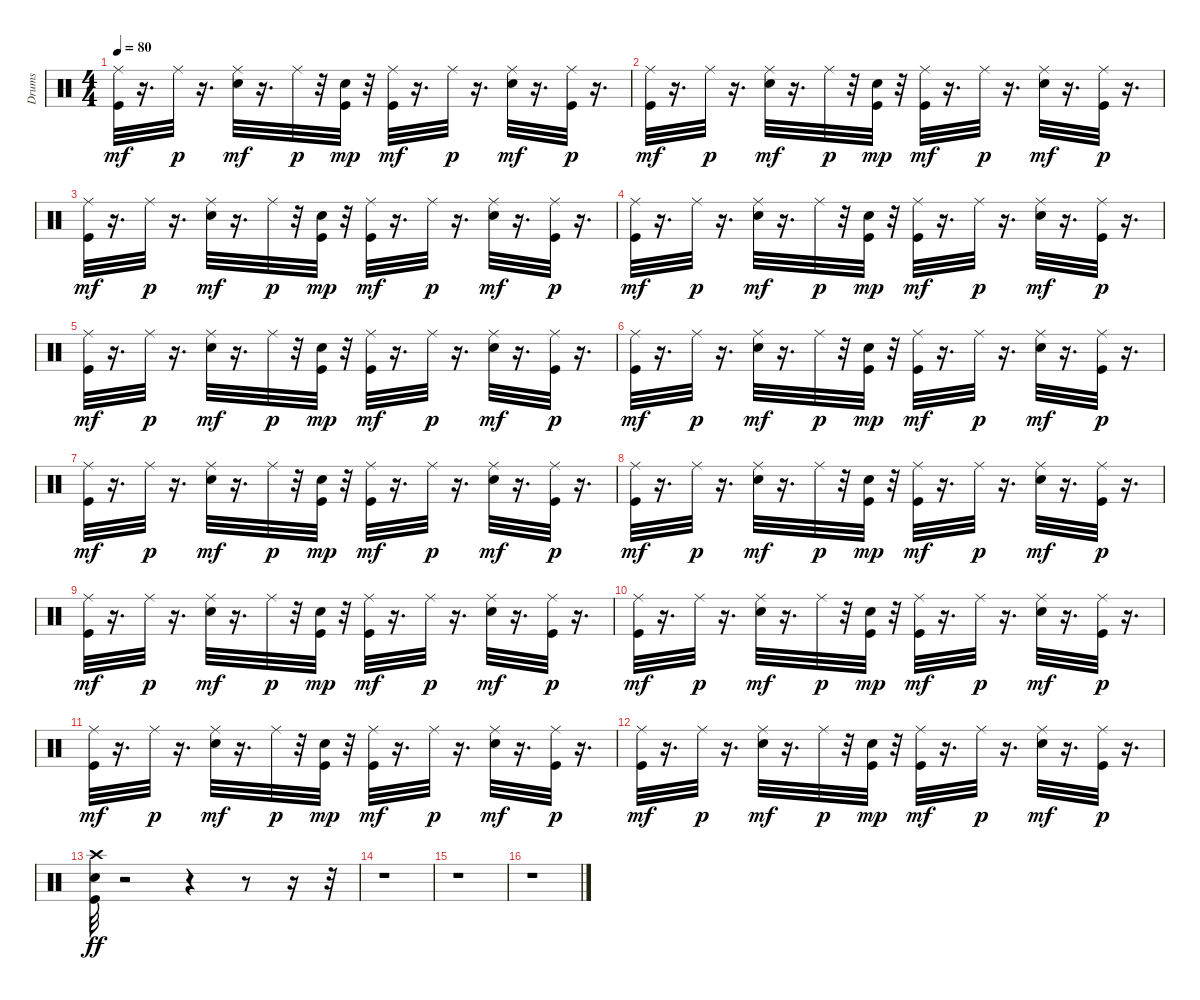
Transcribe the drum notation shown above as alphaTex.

\track ("Drums" "Drums") {instrument percussion}
\staff {score}
\articulation defaults
\ts (4 4)
\tempo 80
\clef neutral
\ks c
("Kick (hit)" "Ride (middle)").32{dy mf} r.16{d} "Ride (middle)".32{dy p} r.16{d} ("Snare (hit) 2" "Ride (middle)").32{dy mf} r.16{d} "Ride (middle)".32{dy p} r.32 ("Kick (hit)" "Snare (hit) 2").32{dy mp} r.32 ("Kick (hit)" "Ride (middle)").32{dy mf} r.16{d} "Ride (middle)".32{dy p} r.16{d} ("Snare (hit) 2" "Ride (middle)").32{dy mf} r.16{d} ("Kick (hit)" "Ride (middle)").32{dy p} r.16{d} |
("Kick (hit)" "Ride (middle)").32{dy mf} r.16{d} "Ride (middle)".32{dy p} r.16{d} ("Snare (hit) 2" "Ride (middle)").32{dy mf} r.16{d} "Ride (middle)".32{dy p} r.32 ("Kick (hit)" "Snare (hit) 2").32{dy mp} r.32 ("Kick (hit)" "Ride (middle)").32{dy mf} r.16{d} "Ride (middle)".32{dy p} r.16{d} ("Snare (hit) 2" "Ride (middle)").32{dy mf} r.16{d} ("Kick (hit)" "Ride (middle)").32{dy p} r.16{d} |
("Kick (hit)" "Ride (middle)").32{dy mf} r.16{d} "Ride (middle)".32{dy p} r.16{d} ("Snare (hit) 2" "Ride (middle)").32{dy mf} r.16{d} "Ride (middle)".32{dy p} r.32 ("Kick (hit)" "Snare (hit) 2").32{dy mp} r.32 ("Kick (hit)" "Ride (middle)").32{dy mf} r.16{d} "Ride (middle)".32{dy p} r.16{d} ("Snare (hit) 2" "Ride (middle)").32{dy mf} r.16{d} ("Kick (hit)" "Ride (middle)").32{dy p} r.16{d} |
("Kick (hit)" "Ride (middle)").32{dy mf} r.16{d} "Ride (middle)".32{dy p} r.16{d} ("Snare (hit) 2" "Ride (middle)").32{dy mf} r.16{d} "Ride (middle)".32{dy p} r.32 ("Kick (hit)" "Snare (hit) 2").32{dy mp} r.32 ("Kick (hit)" "Ride (middle)").32{dy mf} r.16{d} "Ride (middle)".32{dy p} r.16{d} ("Snare (hit) 2" "Ride (middle)").32{dy mf} r.16{d} ("Kick (hit)" "Ride (middle)").32{dy p} r.16{d} |
("Kick (hit)" "Ride (middle)").32{dy mf} r.16{d} "Ride (middle)".32{dy p} r.16{d} ("Snare (hit) 2" "Ride (middle)").32{dy mf} r.16{d} "Ride (middle)".32{dy p} r.32 ("Kick (hit)" "Snare (hit) 2").32{dy mp} r.32 ("Kick (hit)" "Ride (middle)").32{dy mf} r.16{d} "Ride (middle)".32{dy p} r.16{d} ("Snare (hit) 2" "Ride (middle)").32{dy mf} r.16{d} ("Kick (hit)" "Ride (middle)").32{dy p} r.16{d} |
("Kick (hit)" "Ride (middle)").32{dy mf} r.16{d} "Ride (middle)".32{dy p} r.16{d} ("Snare (hit) 2" "Ride (middle)").32{dy mf} r.16{d} "Ride (middle)".32{dy p} r.32 ("Kick (hit)" "Snare (hit) 2").32{dy mp} r.32 ("Kick (hit)" "Ride (middle)").32{dy mf} r.16{d} "Ride (middle)".32{dy p} r.16{d} ("Snare (hit) 2" "Ride (middle)").32{dy mf} r.16{d} ("Kick (hit)" "Ride (middle)").32{dy p} r.16{d} |
("Kick (hit)" "Ride (middle)").32{dy mf} r.16{d} "Ride (middle)".32{dy p} r.16{d} ("Snare (hit) 2" "Ride (middle)").32{dy mf} r.16{d} "Ride (middle)".32{dy p} r.32 ("Kick (hit)" "Snare (hit) 2").32{dy mp} r.32 ("Kick (hit)" "Ride (middle)").32{dy mf} r.16{d} "Ride (middle)".32{dy p} r.16{d} ("Snare (hit) 2" "Ride (middle)").32{dy mf} r.16{d} ("Kick (hit)" "Ride (middle)").32{dy p} r.16{d} |
("Kick (hit)" "Ride (middle)").32{dy mf} r.16{d} "Ride (middle)".32{dy p} r.16{d} ("Snare (hit) 2" "Ride (middle)").32{dy mf} r.16{d} "Ride (middle)".32{dy p} r.32 ("Kick (hit)" "Snare (hit) 2").32{dy mp} r.32 ("Kick (hit)" "Ride (middle)").32{dy mf} r.16{d} "Ride (middle)".32{dy p} r.16{d} ("Snare (hit) 2" "Ride (middle)").32{dy mf} r.16{d} ("Kick (hit)" "Ride (middle)").32{dy p} r.16{d} |
("Kick (hit)" "Ride (middle)").32{dy mf} r.16{d} "Ride (middle)".32{dy p} r.16{d} ("Snare (hit) 2" "Ride (middle)").32{dy mf} r.16{d} "Ride (middle)".32{dy p} r.32 ("Kick (hit)" "Snare (hit) 2").32{dy mp} r.32 ("Kick (hit)" "Ride (middle)").32{dy mf} r.16{d} "Ride (middle)".32{dy p} r.16{d} ("Snare (hit) 2" "Ride (middle)").32{dy mf} r.16{d} ("Kick (hit)" "Ride (middle)").32{dy p} r.16{d} |
("Kick (hit)" "Ride (middle)").32{dy mf} r.16{d} "Ride (middle)".32{dy p} r.16{d} ("Snare (hit) 2" "Ride (middle)").32{dy mf} r.16{d} "Ride (middle)".32{dy p} r.32 ("Kick (hit)" "Snare (hit) 2").32{dy mp} r.32 ("Kick (hit)" "Ride (middle)").32{dy mf} r.16{d} "Ride (middle)".32{dy p} r.16{d} ("Snare (hit) 2" "Ride (middle)").32{dy mf} r.16{d} ("Kick (hit)" "Ride (middle)").32{dy p} r.16{d} |
("Kick (hit)" "Ride (middle)").32{dy mf} r.16{d} "Ride (middle)".32{dy p} r.16{d} ("Snare (hit) 2" "Ride (middle)").32{dy mf} r.16{d} "Ride (middle)".32{dy p} r.32 ("Kick (hit)" "Snare (hit) 2").32{dy mp} r.32 ("Kick (hit)" "Ride (middle)").32{dy mf} r.16{d} "Ride (middle)".32{dy p} r.16{d} ("Snare (hit) 2" "Ride (middle)").32{dy mf} r.16{d} ("Kick (hit)" "Ride (middle)").32{dy p} r.16{d} |
("Kick (hit)" "Ride (middle)").32{dy mf} r.16{d} "Ride (middle)".32{dy p} r.16{d} ("Snare (hit) 2" "Ride (middle)").32{dy mf} r.16{d} "Ride (middle)".32{dy p} r.32 ("Kick (hit)" "Snare (hit) 2").32{dy mp} r.32 ("Kick (hit)" "Ride (middle)").32{dy mf} r.16{d} "Ride (middle)".32{dy p} r.16{d} ("Snare (hit) 2" "Ride (middle)").32{dy mf} r.16{d} ("Kick (hit)" "Ride (middle)").32{dy p} r.16{d} |
("Kick (hit)" "Snare (hit) 2" "Crash high (hit)").32{dy ff} r.2 r.4 r.8 r.16 r.32 |
r.1 |
r.1 |
r.1
